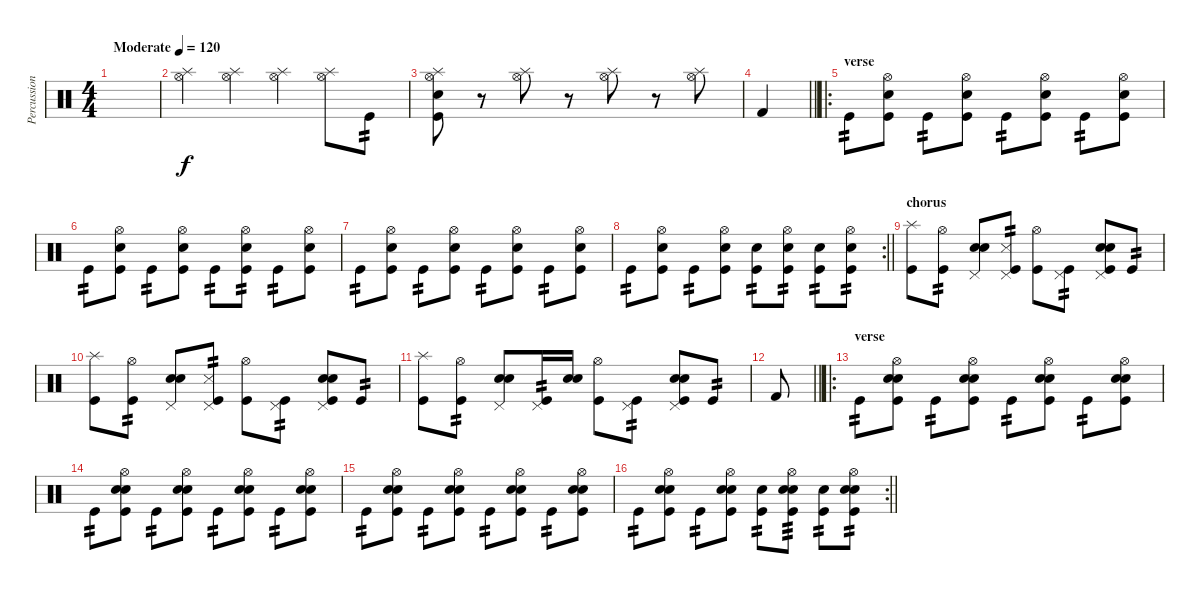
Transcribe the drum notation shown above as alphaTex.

\track ("Percussion" "Percussion") {instrument percussion}
\staff {score}
\articulation defaults
\ts (4 4)
\tempo (120 "Moderate")
\clef neutral
\ks c
|
("Splash (hit)" "Hi-Hat (open)").4 ("Splash (hit)" "Hi-Hat (open)").4 ("Splash (hit)" "Hi-Hat (open)").4 ("Splash (hit)" "Hi-Hat (open)").8 "Kick (hit)".8{tp 2} |
("Splash (hit)" "Hi-Hat (open)" "Snare (hit) 2" "Kick (hit)").8 r.8 ("Splash (hit)" "Hi-Hat (open)").8 r.8 ("Splash (hit)" "Hi-Hat (open)").8 r.8 ("Splash (hit)" "Hi-Hat (open)").8 |
\barLineRight lightlight "Kick (hit) 2".4
|
\ro
\section ("" "verse")
"Kick (hit)".8{tp 2} ("Hi-Hat (open)" "Snare (hit) 2" "Kick (hit)").8 "Kick (hit)".8{tp 2} ("Hi-Hat (open)" "Snare (hit) 2" "Kick (hit)").8 "Kick (hit)".8{tp 2} ("Hi-Hat (open)" "Snare (hit) 2" "Kick (hit)").8 "Kick (hit)".8{tp 2} ("Hi-Hat (open)" "Snare (hit) 2" "Kick (hit)").8 |
"Kick (hit)".8{tp 2} ("Hi-Hat (open)" "Snare (hit) 2" "Kick (hit)").8 "Kick (hit)".8{tp 2} ("Hi-Hat (open)" "Snare (hit) 2" "Kick (hit)").8 "Kick (hit)".8{tp 2} ("Hi-Hat (open)" "Snare (hit) 2" "Kick (hit)").8{tp 2} "Kick (hit)".8{tp 2} ("Hi-Hat (open)" "Snare (hit) 2" "Kick (hit)").8 |
"Kick (hit)".8{tp 2} ("Hi-Hat (open)" "Snare (hit) 2" "Kick (hit)").8 "Kick (hit)".8{tp 2} ("Hi-Hat (open)" "Snare (hit) 2" "Kick (hit)").8 "Kick (hit)".8{tp 2} ("Hi-Hat (open)" "Snare (hit) 2" "Kick (hit)").8 "Kick (hit)".8{tp 2} ("Hi-Hat (open)" "Snare (hit) 2" "Kick (hit)").8 |
\rc 2
\barLineRight lightlight "Kick (hit)".8{tp 2}
("Hi-Hat (open)" "Snare (hit) 2" "Kick (hit)").8 "Kick (hit)".8{tp 2} ("Hi-Hat (open)" "Snare (hit) 2" "Kick (hit)").8 ("Snare (hit) 2" "Kick (hit)").8{tp 2} ("Hi-Hat (open)" "Snare (hit) 2" "Kick (hit)").8{tp 2} ("Snare (hit) 2" "Kick (hit)").8{tp 2} ("Hi-Hat (open)" "Snare (hit) 2" "Kick (hit)").8{tp 2} |
\section ("" "chorus")
("Splash (hit)" "Kick (hit)").8 ("Hi-Hat (open)" "Kick (hit)").8{tp 2} ("Snare (hit) 2" "Pedal Hi-Hat (hit)" "Electric Snare (hit)").8 ("Pedal Hi-Hat (hit)" "Snare (side stick) 3" "Kick (hit)").8{tp 2} ("Hi-Hat (open)" "Kick (hit)").8 ("Pedal Hi-Hat (hit)" "Kick (hit)").8{tp 2} ("Snare (hit) 2" "Pedal Hi-Hat (hit)" "Electric Snare (hit)" "Kick (hit)").8 "Kick (hit)".8{tp 2} |
("Splash (hit)" "Kick (hit)").8 ("Hi-Hat (open)" "Kick (hit)").8{tp 2} ("Snare (hit) 2" "Pedal Hi-Hat (hit)" "Electric Snare (hit)").8 ("Pedal Hi-Hat (hit)" "Snare (side stick) 3" "Kick (hit)").8{tp 2} ("Hi-Hat (open)" "Kick (hit)").8 ("Pedal Hi-Hat (hit)" "Kick (hit)").8{tp 2} ("Snare (hit) 2" "Pedal Hi-Hat (hit)" "Electric Snare (hit)" "Kick (hit)").8 "Kick (hit)".8{tp 2} |
("Splash (hit)" "Kick (hit)").8 ("Hi-Hat (open)" "Kick (hit)").8{tp 2} ("Snare (hit) 2" "Pedal Hi-Hat (hit)" "Electric Snare (hit)").8 ("Pedal Hi-Hat (hit)" "Kick (hit)").16{tp 2} ("Snare (hit) 2" "Electric Snare (hit)").16 ("Hi-Hat (open)" "Kick (hit)").8 ("Pedal Hi-Hat (hit)" "Kick (hit)").8{tp 2} ("Snare (hit) 2" "Pedal Hi-Hat (hit)" "Electric Snare (hit)" "Kick (hit)").8 "Kick (hit)".8{tp 2} |
\barLineRight lightlight "Kick (hit) 2".8
|
\ro
\section ("" "verse")
"Kick (hit)".8{tp 2} ("Hi-Hat (open)" "Snare (hit) 2" "Electric Snare (hit)" "Kick (hit)").8 "Kick (hit)".8{tp 2} ("Hi-Hat (open)" "Snare (hit) 2" "Electric Snare (hit)" "Kick (hit)").8 "Kick (hit)".8{tp 2} ("Hi-Hat (open)" "Snare (hit) 2" "Electric Snare (hit)" "Kick (hit)").8 "Kick (hit)".8{tp 2} ("Hi-Hat (open)" "Snare (hit)" "Electric Snare (hit)" "Kick (hit)").8 |
"Kick (hit)".8{tp 2} ("Hi-Hat (open)" "Snare (hit) 2" "Electric Snare (hit)" "Kick (hit)").8 "Kick (hit)".8{tp 2} ("Hi-Hat (open)" "Snare (hit) 2" "Electric Snare (hit)" "Kick (hit)").8 "Kick (hit)".8{tp 2} ("Hi-Hat (open)" "Snare (hit) 2" "Electric Snare (hit)" "Kick (hit)").8 "Kick (hit)".8{tp 2} ("Hi-Hat (open)" "Snare (hit) 2" "Electric Snare (hit)" "Kick (hit)").8 |
"Kick (hit)".8{tp 2} ("Hi-Hat (open)" "Snare (hit) 2" "Electric Snare (hit)" "Kick (hit)").8 "Kick (hit)".8{tp 2} ("Hi-Hat (open)" "Snare (hit) 2" "Electric Snare (hit)" "Kick (hit)").8 "Kick (hit)".8{tp 2} ("Hi-Hat (open)" "Snare (hit) 2" "Electric Snare (hit)" "Kick (hit)").8 "Kick (hit)".8{tp 2} ("Hi-Hat (open)" "Snare (hit) 2" "Electric Snare (hit)" "Kick (hit)").8 |
\rc 2
\barLineRight lightlight "Kick (hit)".8{tp 2}
("Hi-Hat (open)" "Snare (hit) 2" "Electric Snare (hit)" "Kick (hit)").8 "Kick (hit)".8{tp 2} ("Hi-Hat (open)" "Snare (hit) 2" "Electric Snare (hit)" "Kick (hit)").8 ("Electric Snare (hit)" "Kick (hit)").8{tp 2} ("Hi-Hat (open)" "Snare (hit) 2" "Electric Snare (hit)" "Kick (hit)").8{tp 3} ("Electric Snare (hit)" "Kick (hit)").8{tp 2} ("Hi-Hat (open)" "Snare (hit) 2" "Electric Snare (hit)" "Kick (hit)").8{tp 2}
